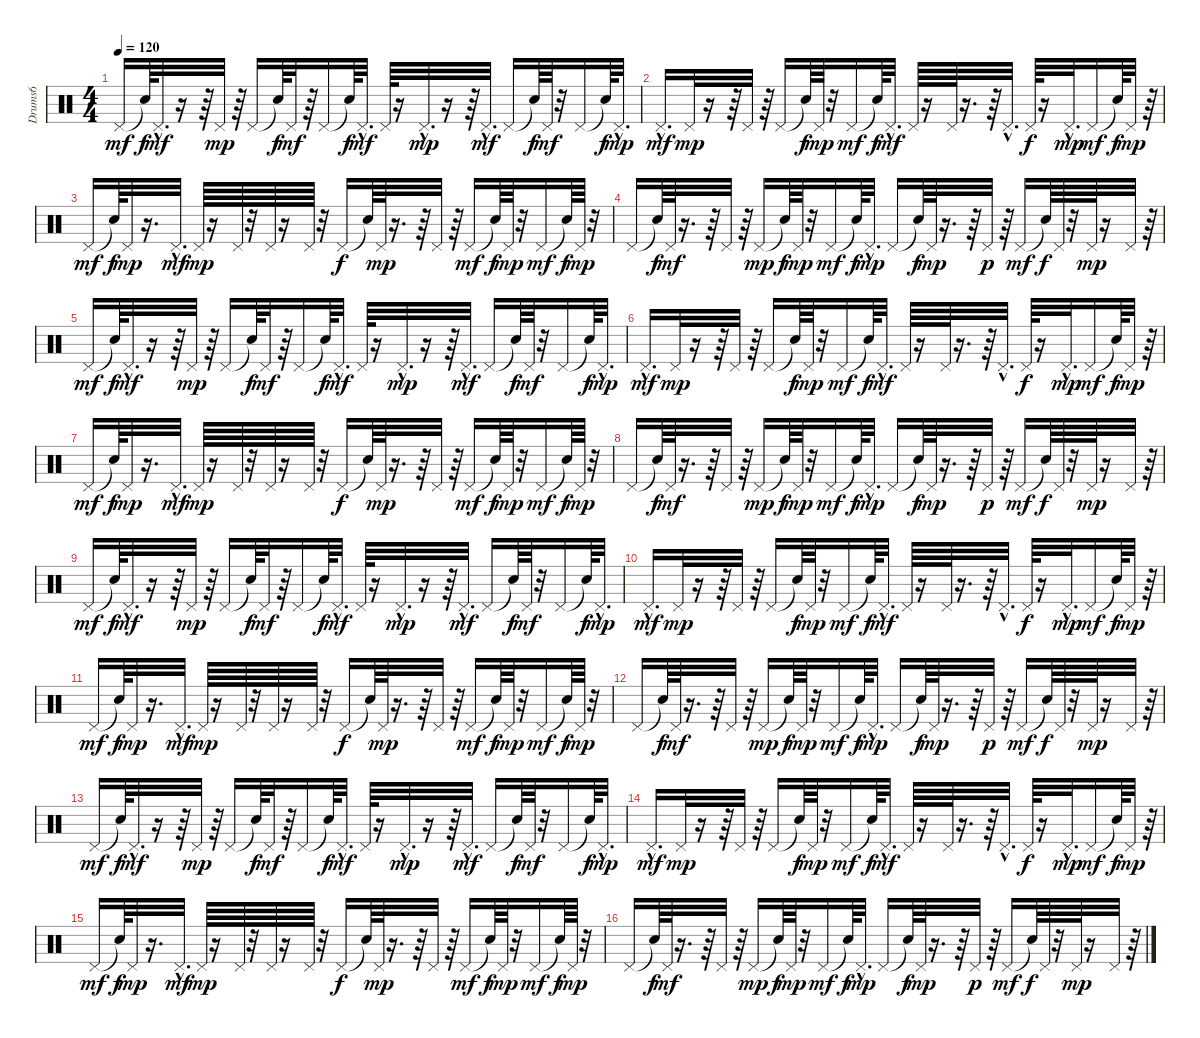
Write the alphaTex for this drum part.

\track ("Drums6" "Drums6") {instrument percussion}
\staff {score}
\articulation defaults
\ts (4 4)
\tempo 120
\clef neutral
\ks c "Pedal Hi-Hat (hit)".16{dy mf} "Snare (hit)"{t}.64{dy f} "Pedal Hi-Hat (hit)"{hac}.32{d dy mf}
r.16 r.64 "Pedal Hi-Hat (hit)".32{dy mp} r.64 "Pedal Hi-Hat (hit)".16 "Snare (hit)"{t}.64{dy f} "Pedal Hi-Hat (hit)".32{dy mf} r.64 "Pedal Hi-Hat (hit)".16 "Snare (hit)"{t}.64{dy f} "Pedal Hi-Hat (hit)"{hac}.32{d dy mf} "Pedal Hi-Hat (hit)".64 r.16 "Pedal Hi-Hat (hit)"{hac}.32{d dy mp} r.16 r.64 "Pedal Hi-Hat (hit)"{hac}.32{d dy mf} "Pedal Hi-Hat (hit)".16 "Snare (hit)"{t}.64{dy f} "Pedal Hi-Hat (hit)".64{dy mf} r.32 "Pedal Hi-Hat (hit)".16 "Snare (hit)"{t}.64{dy f} "Pedal Hi-Hat (hit)"{hac}.32{d dy mp} |
"Pedal Hi-Hat (hit)"{hac}.16{d dy mf} "Pedal Hi-Hat (hit)".32{dy mp} r.16 r.64 "Pedal Hi-Hat (hit)".32 r.64 "Pedal Hi-Hat (hit)".16 "Snare (hit)"{t}.64{dy f} "Pedal Hi-Hat (hit)".64{dy mp} r.32 "Pedal Hi-Hat (hit)".16{dy mf} "Snare (hit)"{t}.64{dy f} "Pedal Hi-Hat (hit)"{hac}.32{d dy mf} "Pedal Hi-Hat (hit)".64 r.16 "Pedal Hi-Hat (hit)".64 r.16{d} r.64 "Pedal Hi-Hat (hit)"{hac}.32{d} "Pedal Hi-Hat (hit)".64{dy f} r.16 "Pedal Hi-Hat (hit)"{hac}.32{d dy mp} "Pedal Hi-Hat (hit)".16{dy mf} "Snare (hit)"{t}.64{dy f} "Pedal Hi-Hat (hit)".32{dy mp} r.64 |
"Pedal Hi-Hat (hit)".16{dy mf} "Snare (hit)"{t}.64{dy f} "Pedal Hi-Hat (hit)".32{dy mp} r.16{d} "Pedal Hi-Hat (hit)"{hac}.32{d dy mf} "Pedal Hi-Hat (hit)".64{dy mp} r.16 "Pedal Hi-Hat (hit)".64 r.32 "Pedal Hi-Hat (hit)".64 r.16 "Pedal Hi-Hat (hit)".64 r.32 "Pedal Hi-Hat (hit)".16{dy f} "Snare (hit)"{t}.64 "Pedal Hi-Hat (hit)".64{dy mp} r.16{d} r.64 "Pedal Hi-Hat (hit)".32 r.64 "Pedal Hi-Hat (hit)".16{dy mf} "Snare (hit)"{t}.64{dy f} "Pedal Hi-Hat (hit)".64{dy mp} r.32 "Pedal Hi-Hat (hit)".16{dy mf} "Snare (hit)"{t}.64{dy f} "Pedal Hi-Hat (hit)".64{dy mp} r.32 |
"Pedal Hi-Hat (hit)".16 "Snare (hit)"{t}.64{dy f} "Pedal Hi-Hat (hit)".64{dy mf} r.16{d} r.64 "Pedal Hi-Hat (hit)".32 r.64 "Pedal Hi-Hat (hit)".16{dy mp} "Snare (hit)"{t}.64{dy f} "Pedal Hi-Hat (hit)".64{dy mp} r.32 "Pedal Hi-Hat (hit)".16{dy mf} "Snare (hit)"{t}.64{dy f} "Pedal Hi-Hat (hit)"{hac}.32{d dy mp} "Pedal Hi-Hat (hit)".16 "Snare (hit)"{t}.64{dy f} "Pedal Hi-Hat (hit)".64{dy mp} r.16{d} r.64 "Pedal Hi-Hat (hit)".32{dy p} r.64 "Pedal Hi-Hat (hit)".16{dy mf} "Snare (hit)"{t}.64{dy f} "Pedal Hi-Hat (hit)".64 r.32 "Pedal Hi-Hat (hit)".64{dy mp} r.16 "Pedal Hi-Hat (hit)".32 r.64 |
"Pedal Hi-Hat (hit)".16{dy mf} "Snare (hit)"{t}.64{dy f} "Pedal Hi-Hat (hit)"{hac}.32{d dy mf} r.16 r.64 "Pedal Hi-Hat (hit)".32{dy mp} r.64 "Pedal Hi-Hat (hit)".16 "Snare (hit)"{t}.64{dy f} "Pedal Hi-Hat (hit)".32{dy mf} r.64 "Pedal Hi-Hat (hit)".16 "Snare (hit)"{t}.64{dy f} "Pedal Hi-Hat (hit)"{hac}.32{d dy mf} "Pedal Hi-Hat (hit)".64 r.16 "Pedal Hi-Hat (hit)"{hac}.32{d dy mp} r.16 r.64 "Pedal Hi-Hat (hit)"{hac}.32{d dy mf} "Pedal Hi-Hat (hit)".16 "Snare (hit)"{t}.64{dy f} "Pedal Hi-Hat (hit)".64{dy mf} r.32 "Pedal Hi-Hat (hit)".16 "Snare (hit)"{t}.64{dy f} "Pedal Hi-Hat (hit)"{hac}.32{d dy mp} |
"Pedal Hi-Hat (hit)"{hac}.16{d dy mf} "Pedal Hi-Hat (hit)".32{dy mp} r.16 r.64 "Pedal Hi-Hat (hit)".32 r.64 "Pedal Hi-Hat (hit)".16 "Snare (hit)"{t}.64{dy f} "Pedal Hi-Hat (hit)".64{dy mp} r.32 "Pedal Hi-Hat (hit)".16{dy mf} "Snare (hit)"{t}.64{dy f} "Pedal Hi-Hat (hit)"{hac}.32{d dy mf} "Pedal Hi-Hat (hit)".64 r.16 "Pedal Hi-Hat (hit)".64 r.16{d} r.64 "Pedal Hi-Hat (hit)"{hac}.32{d} "Pedal Hi-Hat (hit)".64{dy f} r.16 "Pedal Hi-Hat (hit)"{hac}.32{d dy mp} "Pedal Hi-Hat (hit)".16{dy mf} "Snare (hit)"{t}.64{dy f} "Pedal Hi-Hat (hit)".32{dy mp} r.64 |
"Pedal Hi-Hat (hit)".16{dy mf} "Snare (hit)"{t}.64{dy f} "Pedal Hi-Hat (hit)".32{dy mp} r.16{d} "Pedal Hi-Hat (hit)"{hac}.32{d dy mf} "Pedal Hi-Hat (hit)".64{dy mp} r.16 "Pedal Hi-Hat (hit)".64 r.32 "Pedal Hi-Hat (hit)".64 r.16 "Pedal Hi-Hat (hit)".64 r.32 "Pedal Hi-Hat (hit)".16{dy f} "Snare (hit)"{t}.64 "Pedal Hi-Hat (hit)".64{dy mp} r.16{d} r.64 "Pedal Hi-Hat (hit)".32 r.64 "Pedal Hi-Hat (hit)".16{dy mf} "Snare (hit)"{t}.64{dy f} "Pedal Hi-Hat (hit)".64{dy mp} r.32 "Pedal Hi-Hat (hit)".16{dy mf} "Snare (hit)"{t}.64{dy f} "Pedal Hi-Hat (hit)".64{dy mp} r.32 |
"Pedal Hi-Hat (hit)".16 "Snare (hit)"{t}.64{dy f} "Pedal Hi-Hat (hit)".64{dy mf} r.16{d} r.64 "Pedal Hi-Hat (hit)".32 r.64 "Pedal Hi-Hat (hit)".16{dy mp} "Snare (hit)"{t}.64{dy f} "Pedal Hi-Hat (hit)".64{dy mp} r.32 "Pedal Hi-Hat (hit)".16{dy mf} "Snare (hit)"{t}.64{dy f} "Pedal Hi-Hat (hit)"{hac}.32{d dy mp} "Pedal Hi-Hat (hit)".16 "Snare (hit)"{t}.64{dy f} "Pedal Hi-Hat (hit)".64{dy mp} r.16{d} r.64 "Pedal Hi-Hat (hit)".32{dy p} r.64 "Pedal Hi-Hat (hit)".16{dy mf} "Snare (hit)"{t}.64{dy f} "Pedal Hi-Hat (hit)".64 r.32 "Pedal Hi-Hat (hit)".64{dy mp} r.16 "Pedal Hi-Hat (hit)".32 r.64 |
"Pedal Hi-Hat (hit)".16{dy mf} "Snare (hit)"{t}.64{dy f} "Pedal Hi-Hat (hit)"{hac}.32{d dy mf} r.16 r.64 "Pedal Hi-Hat (hit)".32{dy mp} r.64 "Pedal Hi-Hat (hit)".16 "Snare (hit)"{t}.64{dy f} "Pedal Hi-Hat (hit)".32{dy mf} r.64 "Pedal Hi-Hat (hit)".16 "Snare (hit)"{t}.64{dy f} "Pedal Hi-Hat (hit)"{hac}.32{d dy mf} "Pedal Hi-Hat (hit)".64 r.16 "Pedal Hi-Hat (hit)"{hac}.32{d dy mp} r.16 r.64 "Pedal Hi-Hat (hit)"{hac}.32{d dy mf} "Pedal Hi-Hat (hit)".16 "Snare (hit)"{t}.64{dy f} "Pedal Hi-Hat (hit)".64{dy mf} r.32 "Pedal Hi-Hat (hit)".16 "Snare (hit)"{t}.64{dy f} "Pedal Hi-Hat (hit)"{hac}.32{d dy mp} |
"Pedal Hi-Hat (hit)"{hac}.16{d dy mf} "Pedal Hi-Hat (hit)".32{dy mp} r.16 r.64 "Pedal Hi-Hat (hit)".32 r.64 "Pedal Hi-Hat (hit)".16 "Snare (hit)"{t}.64{dy f} "Pedal Hi-Hat (hit)".64{dy mp} r.32 "Pedal Hi-Hat (hit)".16{dy mf} "Snare (hit)"{t}.64{dy f} "Pedal Hi-Hat (hit)"{hac}.32{d dy mf} "Pedal Hi-Hat (hit)".64 r.16 "Pedal Hi-Hat (hit)".64 r.16{d} r.64 "Pedal Hi-Hat (hit)"{hac}.32{d} "Pedal Hi-Hat (hit)".64{dy f} r.16 "Pedal Hi-Hat (hit)"{hac}.32{d dy mp} "Pedal Hi-Hat (hit)".16{dy mf} "Snare (hit)"{t}.64{dy f} "Pedal Hi-Hat (hit)".32{dy mp} r.64 |
"Pedal Hi-Hat (hit)".16{dy mf} "Snare (hit)"{t}.64{dy f} "Pedal Hi-Hat (hit)".32{dy mp} r.16{d} "Pedal Hi-Hat (hit)"{hac}.32{d dy mf} "Pedal Hi-Hat (hit)".64{dy mp} r.16 "Pedal Hi-Hat (hit)".64 r.32 "Pedal Hi-Hat (hit)".64 r.16 "Pedal Hi-Hat (hit)".64 r.32 "Pedal Hi-Hat (hit)".16{dy f} "Snare (hit)"{t}.64 "Pedal Hi-Hat (hit)".64{dy mp} r.16{d} r.64 "Pedal Hi-Hat (hit)".32 r.64 "Pedal Hi-Hat (hit)".16{dy mf} "Snare (hit)"{t}.64{dy f} "Pedal Hi-Hat (hit)".64{dy mp} r.32 "Pedal Hi-Hat (hit)".16{dy mf} "Snare (hit)"{t}.64{dy f} "Pedal Hi-Hat (hit)".64{dy mp} r.32 |
"Pedal Hi-Hat (hit)".16 "Snare (hit)"{t}.64{dy f} "Pedal Hi-Hat (hit)".64{dy mf} r.16{d} r.64 "Pedal Hi-Hat (hit)".32 r.64 "Pedal Hi-Hat (hit)".16{dy mp} "Snare (hit)"{t}.64{dy f} "Pedal Hi-Hat (hit)".64{dy mp} r.32 "Pedal Hi-Hat (hit)".16{dy mf} "Snare (hit)"{t}.64{dy f} "Pedal Hi-Hat (hit)"{hac}.32{d dy mp} "Pedal Hi-Hat (hit)".16 "Snare (hit)"{t}.64{dy f} "Pedal Hi-Hat (hit)".64{dy mp} r.16{d} r.64 "Pedal Hi-Hat (hit)".32{dy p} r.64 "Pedal Hi-Hat (hit)".16{dy mf} "Snare (hit)"{t}.64{dy f} "Pedal Hi-Hat (hit)".64 r.32 "Pedal Hi-Hat (hit)".64{dy mp} r.16 "Pedal Hi-Hat (hit)".32 r.64 |
"Pedal Hi-Hat (hit)".16{dy mf} "Snare (hit)"{t}.64{dy f} "Pedal Hi-Hat (hit)"{hac}.32{d dy mf} r.16 r.64 "Pedal Hi-Hat (hit)".32{dy mp} r.64 "Pedal Hi-Hat (hit)".16 "Snare (hit)"{t}.64{dy f} "Pedal Hi-Hat (hit)".32{dy mf} r.64 "Pedal Hi-Hat (hit)".16 "Snare (hit)"{t}.64{dy f} "Pedal Hi-Hat (hit)"{hac}.32{d dy mf} "Pedal Hi-Hat (hit)".64 r.16 "Pedal Hi-Hat (hit)"{hac}.32{d dy mp} r.16 r.64 "Pedal Hi-Hat (hit)"{hac}.32{d dy mf} "Pedal Hi-Hat (hit)".16 "Snare (hit)"{t}.64{dy f} "Pedal Hi-Hat (hit)".64{dy mf} r.32 "Pedal Hi-Hat (hit)".16 "Snare (hit)"{t}.64{dy f} "Pedal Hi-Hat (hit)"{hac}.32{d dy mp} |
"Pedal Hi-Hat (hit)"{hac}.16{d dy mf} "Pedal Hi-Hat (hit)".32{dy mp} r.16 r.64 "Pedal Hi-Hat (hit)".32 r.64 "Pedal Hi-Hat (hit)".16 "Snare (hit)"{t}.64{dy f} "Pedal Hi-Hat (hit)".64{dy mp} r.32 "Pedal Hi-Hat (hit)".16{dy mf} "Snare (hit)"{t}.64{dy f} "Pedal Hi-Hat (hit)"{hac}.32{d dy mf} "Pedal Hi-Hat (hit)".64 r.16 "Pedal Hi-Hat (hit)".64 r.16{d} r.64 "Pedal Hi-Hat (hit)"{hac}.32{d} "Pedal Hi-Hat (hit)".64{dy f} r.16 "Pedal Hi-Hat (hit)"{hac}.32{d dy mp} "Pedal Hi-Hat (hit)".16{dy mf} "Snare (hit)"{t}.64{dy f} "Pedal Hi-Hat (hit)".32{dy mp} r.64 |
"Pedal Hi-Hat (hit)".16{dy mf} "Snare (hit)"{t}.64{dy f} "Pedal Hi-Hat (hit)".32{dy mp} r.16{d} "Pedal Hi-Hat (hit)"{hac}.32{d dy mf} "Pedal Hi-Hat (hit)".64{dy mp} r.16 "Pedal Hi-Hat (hit)".64 r.32 "Pedal Hi-Hat (hit)".64 r.16 "Pedal Hi-Hat (hit)".64 r.32 "Pedal Hi-Hat (hit)".16{dy f} "Snare (hit)"{t}.64 "Pedal Hi-Hat (hit)".64{dy mp} r.16{d} r.64 "Pedal Hi-Hat (hit)".32 r.64 "Pedal Hi-Hat (hit)".16{dy mf} "Snare (hit)"{t}.64{dy f} "Pedal Hi-Hat (hit)".64{dy mp} r.32 "Pedal Hi-Hat (hit)".16{dy mf} "Snare (hit)"{t}.64{dy f} "Pedal Hi-Hat (hit)".64{dy mp} r.32 |
"Pedal Hi-Hat (hit)".16 "Snare (hit)"{t}.64{dy f} "Pedal Hi-Hat (hit)".64{dy mf} r.16{d} r.64 "Pedal Hi-Hat (hit)".32 r.64 "Pedal Hi-Hat (hit)".16{dy mp} "Snare (hit)"{t}.64{dy f} "Pedal Hi-Hat (hit)".64{dy mp} r.32 "Pedal Hi-Hat (hit)".16{dy mf} "Snare (hit)"{t}.64{dy f} "Pedal Hi-Hat (hit)"{hac}.32{d dy mp} "Pedal Hi-Hat (hit)".16 "Snare (hit)"{t}.64{dy f} "Pedal Hi-Hat (hit)".64{dy mp} r.16{d} r.64 "Pedal Hi-Hat (hit)".32{dy p} r.64 "Pedal Hi-Hat (hit)".16{dy mf} "Snare (hit)"{t}.64{dy f} "Pedal Hi-Hat (hit)".64 r.32 "Pedal Hi-Hat (hit)".64{dy mp} r.16 "Pedal Hi-Hat (hit)".32 r.64
